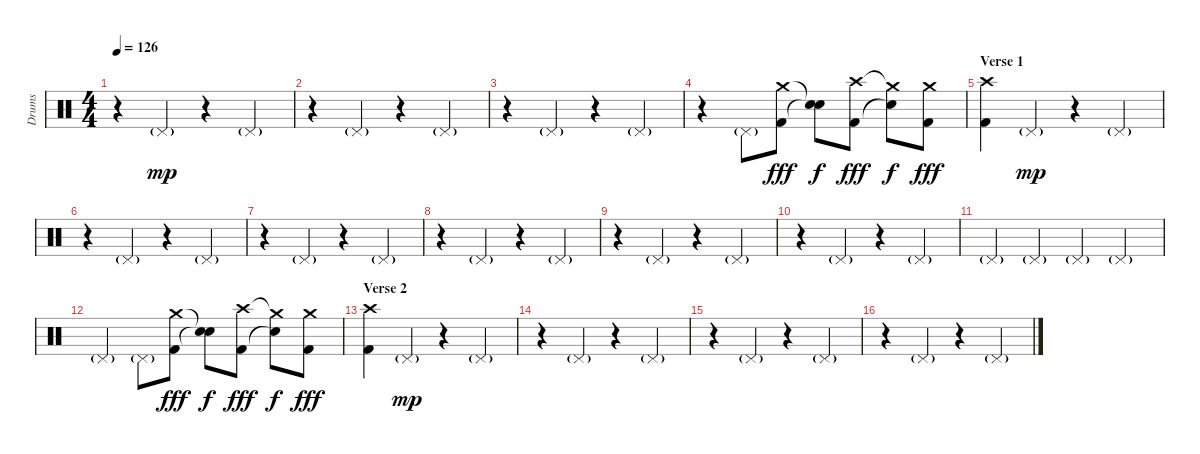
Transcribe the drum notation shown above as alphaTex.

\track ("Drums" "Drums") {instrument percussion}
\staff {score}
\articulation defaults
\ts (4 4)
\tempo 126
\clef neutral
\ks c
r.4{dy mp} "Pedal Hi-Hat (hit)"{g}.4 r.4 "Pedal Hi-Hat (hit)"{g}.4 |
r.4 "Pedal Hi-Hat (hit)"{g}.4 r.4 "Pedal Hi-Hat (hit)"{g}.4 |
r.4 "Pedal Hi-Hat (hit)"{g}.4 r.4 "Pedal Hi-Hat (hit)"{g}.4 |
r.4 "Pedal Hi-Hat (hit)"{g}.8 ("Crash medium (hit)" "Kick (hit) 2").8{dy fff} ("Snare (hit)"{t} "Snare (hit)"{t}).8{dy f} ("Crash high (hit)" "Kick (hit) 2").8{dy fff} ("Crash medium (hit)"{t} "Snare (hit)"{t}).8{dy f} ("Crash medium (hit)" "Kick (hit) 2").8{dy fff} |
\section ("" "Verse 1")
("Crash high (hit)" "Kick (hit) 2").4 "Pedal Hi-Hat (hit)"{g}.4{dy mp} r.4 "Pedal Hi-Hat (hit)"{g}.4 |
r.4 "Pedal Hi-Hat (hit)"{g}.4 r.4 "Pedal Hi-Hat (hit)"{g}.4 |
r.4 "Pedal Hi-Hat (hit)"{g}.4 r.4 "Pedal Hi-Hat (hit)"{g}.4 |
r.4 "Pedal Hi-Hat (hit)"{g}.4 r.4 "Pedal Hi-Hat (hit)"{g}.4 |
r.4 "Pedal Hi-Hat (hit)"{g}.4 r.4 "Pedal Hi-Hat (hit)"{g}.4 |
r.4 "Pedal Hi-Hat (hit)"{g}.4 r.4 "Pedal Hi-Hat (hit)"{g}.4 |
"Pedal Hi-Hat (hit)"{g}.4 "Pedal Hi-Hat (hit)"{g}.4 "Pedal Hi-Hat (hit)"{g}.4 "Pedal Hi-Hat (hit)"{g}.4 |
"Pedal Hi-Hat (hit)"{g}.4 "Pedal Hi-Hat (hit)"{g}.8 ("Crash medium (hit)" "Kick (hit) 2").8{dy fff} ("Snare (hit)"{t} "Snare (hit)"{t}).8{dy f} ("Crash high (hit)" "Kick (hit) 2").8{dy fff} ("Crash medium (hit)"{t} "Snare (hit)"{t}).8{dy f} ("Crash medium (hit)" "Kick (hit) 2").8{dy fff} |
\section ("" "Verse 2")
("Crash high (hit)" "Kick (hit) 2").4 "Pedal Hi-Hat (hit)"{g}.4{dy mp} r.4 "Pedal Hi-Hat (hit)"{g}.4 |
r.4 "Pedal Hi-Hat (hit)"{g}.4 r.4 "Pedal Hi-Hat (hit)"{g}.4 |
r.4 "Pedal Hi-Hat (hit)"{g}.4 r.4 "Pedal Hi-Hat (hit)"{g}.4 |
r.4 "Pedal Hi-Hat (hit)"{g}.4 r.4 "Pedal Hi-Hat (hit)"{g}.4
